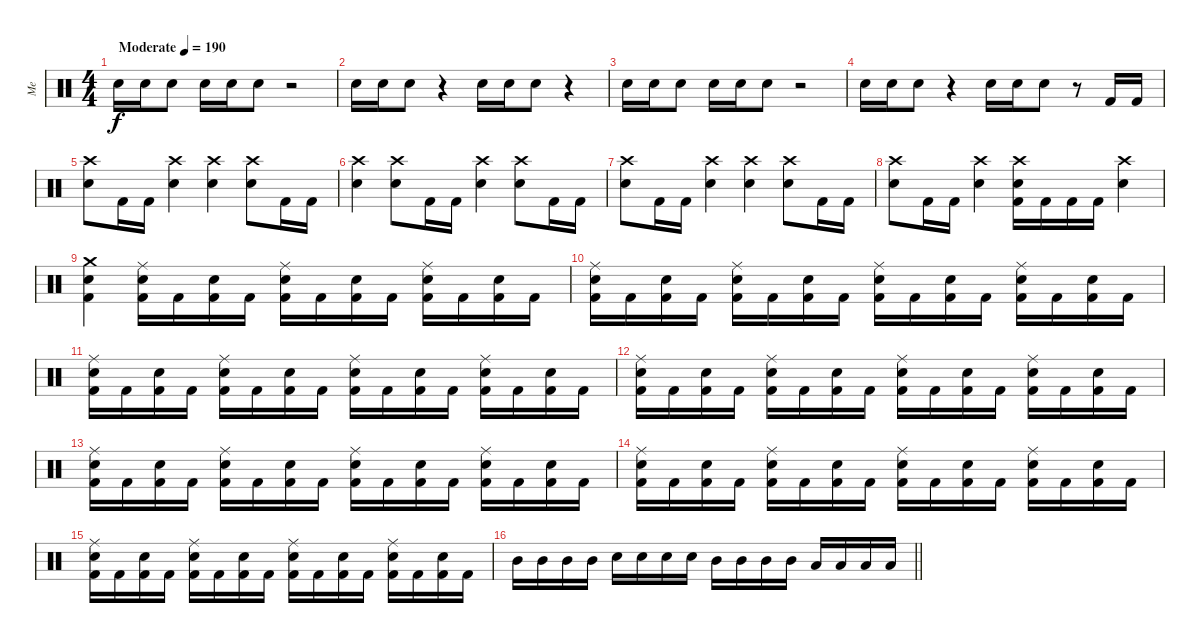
\track ("Me" "Me") {instrument percussion}
\staff {score}
\articulation defaults
\ts (4 4)
\tempo (190 "Moderate")
\clef neutral
\ks c "Snare (hit) 2".16{dy f} "Snare (hit) 2".16 "Snare (hit) 2".8 "Snare (hit) 2".16 "Snare (hit) 2".16 "Snare (hit) 2".8
r.2 |
"Snare (hit) 2".16 "Snare (hit) 2".16 "Snare (hit) 2".8 r.4 "Snare (hit) 2".16 "Snare (hit) 2".16 "Snare (hit) 2".8 r.4 |
"Snare (hit) 2".16 "Snare (hit) 2".16 "Snare (hit) 2".8 "Snare (hit) 2".16 "Snare (hit) 2".16 "Snare (hit) 2".8 r.2 |
"Snare (hit) 2".16 "Snare (hit) 2".16 "Snare (hit) 2".8 r.4 "Snare (hit) 2".16 "Snare (hit) 2".16 "Snare (hit) 2".8 r.8 "Kick (hit) 2".16 "Kick (hit) 2".16 |
("Crash high (hit)" "Snare (hit) 2").8 "Kick (hit) 2".16 "Kick (hit) 2".16 ("Crash high (hit)" "Snare (hit) 2").4 ("Crash high (hit)" "Snare (hit) 2").4 ("Crash high (hit)" "Snare (hit) 2").8 "Kick (hit) 2".16 "Kick (hit) 2".16 |
("Crash high (hit)" "Snare (hit) 2").4 ("Crash high (hit)" "Snare (hit) 2").8 "Kick (hit) 2".16 "Kick (hit) 2".16 ("Crash high (hit)" "Snare (hit) 2").4 ("Crash high (hit)" "Snare (hit) 2").8 "Kick (hit) 2".16 "Kick (hit) 2".16 |
("Crash high (hit)" "Snare (hit) 2").8 "Kick (hit) 2".16 "Kick (hit) 2".16 ("Crash high (hit)" "Snare (hit) 2").4 ("Crash high (hit)" "Snare (hit) 2").4 ("Crash high (hit)" "Snare (hit) 2").8 "Kick (hit) 2".16 "Kick (hit) 2".16 |
("Crash high (hit)" "Snare (hit) 2").8 "Kick (hit) 2".16 "Kick (hit) 2".16 ("Crash high (hit)" "Snare (hit) 2").4 ("Crash high (hit)" "Snare (hit) 2" "Kick (hit) 2").16 "Kick (hit) 2".16 "Kick (hit) 2".16 "Kick (hit) 2".16 ("Crash high (hit)" "Snare (hit) 2").4 |
("Crash medium (hit)" "Snare (hit) 2" "Kick (hit) 2").4 ("Ride (middle)" "Snare (hit) 2" "Kick (hit) 2").16 "Kick (hit) 2".16 ("Snare (hit) 2" "Kick (hit) 2").16 "Kick (hit) 2".16 ("Ride (middle)" "Snare (hit) 2" "Kick (hit) 2").16 "Kick (hit) 2".16 ("Snare (hit) 2" "Kick (hit) 2").16 "Kick (hit) 2".16 ("Ride (middle)" "Snare (hit) 2" "Kick (hit) 2").16 "Kick (hit) 2".16 ("Snare (hit) 2" "Kick (hit) 2").16 "Kick (hit) 2".16 |
("Ride (middle)" "Snare (hit) 2" "Kick (hit) 2").16 "Kick (hit) 2".16 ("Snare (hit) 2" "Kick (hit) 2").16 "Kick (hit) 2".16 ("Ride (middle)" "Snare (hit) 2" "Kick (hit) 2").16 "Kick (hit) 2".16 ("Snare (hit) 2" "Kick (hit) 2").16 "Kick (hit) 2".16 ("Ride (middle)" "Snare (hit) 2" "Kick (hit) 2").16 "Kick (hit) 2".16 ("Snare (hit) 2" "Kick (hit) 2").16 "Kick (hit) 2".16 ("Ride (middle)" "Snare (hit) 2" "Kick (hit) 2").16 "Kick (hit) 2".16 ("Snare (hit) 2" "Kick (hit) 2").16 "Kick (hit) 2".16 |
("Ride (middle)" "Snare (hit) 2" "Kick (hit) 2").16 "Kick (hit) 2".16 ("Snare (hit) 2" "Kick (hit) 2").16 "Kick (hit) 2".16 ("Ride (middle)" "Snare (hit) 2" "Kick (hit) 2").16 "Kick (hit) 2".16 ("Snare (hit) 2" "Kick (hit) 2").16 "Kick (hit) 2".16 ("Ride (middle)" "Snare (hit) 2" "Kick (hit) 2").16 "Kick (hit) 2".16 ("Snare (hit) 2" "Kick (hit) 2").16 "Kick (hit) 2".16 ("Ride (middle)" "Snare (hit) 2" "Kick (hit) 2").16 "Kick (hit) 2".16 ("Snare (hit) 2" "Kick (hit) 2").16 "Kick (hit) 2".16 |
("Ride (middle)" "Snare (hit) 2" "Kick (hit) 2").16 "Kick (hit) 2".16 ("Snare (hit) 2" "Kick (hit) 2").16 "Kick (hit) 2".16 ("Ride (middle)" "Snare (hit) 2" "Kick (hit) 2").16 "Kick (hit) 2".16 ("Snare (hit) 2" "Kick (hit) 2").16 "Kick (hit) 2".16 ("Ride (middle)" "Snare (hit) 2" "Kick (hit) 2").16 "Kick (hit) 2".16 ("Snare (hit) 2" "Kick (hit) 2").16 "Kick (hit) 2".16 ("Ride (middle)" "Snare (hit) 2" "Kick (hit) 2").16 "Kick (hit) 2".16 ("Snare (hit) 2" "Kick (hit) 2").16 "Kick (hit) 2".16 |
("Ride (middle)" "Snare (hit) 2" "Kick (hit) 2").16 "Kick (hit) 2".16 ("Snare (hit) 2" "Kick (hit) 2").16 "Kick (hit) 2".16 ("Ride (middle)" "Snare (hit) 2" "Kick (hit) 2").16 "Kick (hit) 2".16 ("Snare (hit) 2" "Kick (hit) 2").16 "Kick (hit) 2".16 ("Ride (middle)" "Snare (hit) 2" "Kick (hit) 2").16 "Kick (hit) 2".16 ("Snare (hit) 2" "Kick (hit) 2").16 "Kick (hit) 2".16 ("Ride (middle)" "Snare (hit) 2" "Kick (hit) 2").16 "Kick (hit) 2".16 ("Snare (hit) 2" "Kick (hit) 2").16 "Kick (hit) 2".16 |
("Ride (middle)" "Snare (hit) 2" "Kick (hit) 2").16 "Kick (hit) 2".16 ("Snare (hit) 2" "Kick (hit) 2").16 "Kick (hit) 2".16 ("Ride (middle)" "Snare (hit) 2" "Kick (hit) 2").16 "Kick (hit) 2".16 ("Snare (hit) 2" "Kick (hit) 2").16 "Kick (hit) 2".16 ("Ride (middle)" "Snare (hit) 2" "Kick (hit) 2").16 "Kick (hit) 2".16 ("Snare (hit) 2" "Kick (hit) 2").16 "Kick (hit) 2".16 ("Ride (middle)" "Snare (hit) 2" "Kick (hit) 2").16 "Kick (hit) 2".16 ("Snare (hit) 2" "Kick (hit) 2").16 "Kick (hit) 2".16 |
("Ride (middle)" "Snare (hit) 2" "Kick (hit) 2").16 "Kick (hit) 2".16 ("Snare (hit) 2" "Kick (hit) 2").16 "Kick (hit) 2".16 ("Ride (middle)" "Snare (hit) 2" "Kick (hit) 2").16 "Kick (hit) 2".16 ("Snare (hit) 2" "Kick (hit) 2").16 "Kick (hit) 2".16 ("Ride (middle)" "Snare (hit) 2" "Kick (hit) 2").16 "Kick (hit) 2".16 ("Snare (hit) 2" "Kick (hit) 2").16 "Kick (hit) 2".16 ("Ride (middle)" "Snare (hit) 2" "Kick (hit) 2").16 "Kick (hit) 2".16 ("Snare (hit) 2" "Kick (hit) 2").16 "Kick (hit) 2".16 |
\barLineRight lightlight "Mid Tom (hit)".16 "Mid Tom (hit)".16 "Mid Tom (hit)".16 "Mid Tom (hit)".16 "Snare (hit) 2".16 "Snare (hit) 2".16 "Snare (hit) 2".16 "Snare (hit) 2".16 "Mid Tom (hit)".16 "Mid Tom (hit)".16 "Mid Tom (hit)".16 "Mid Tom (hit)".16 "Low Tom (hit)".16 "Low Tom (hit)".16 "Low Tom (hit)".16 "Low Tom (hit)".16
